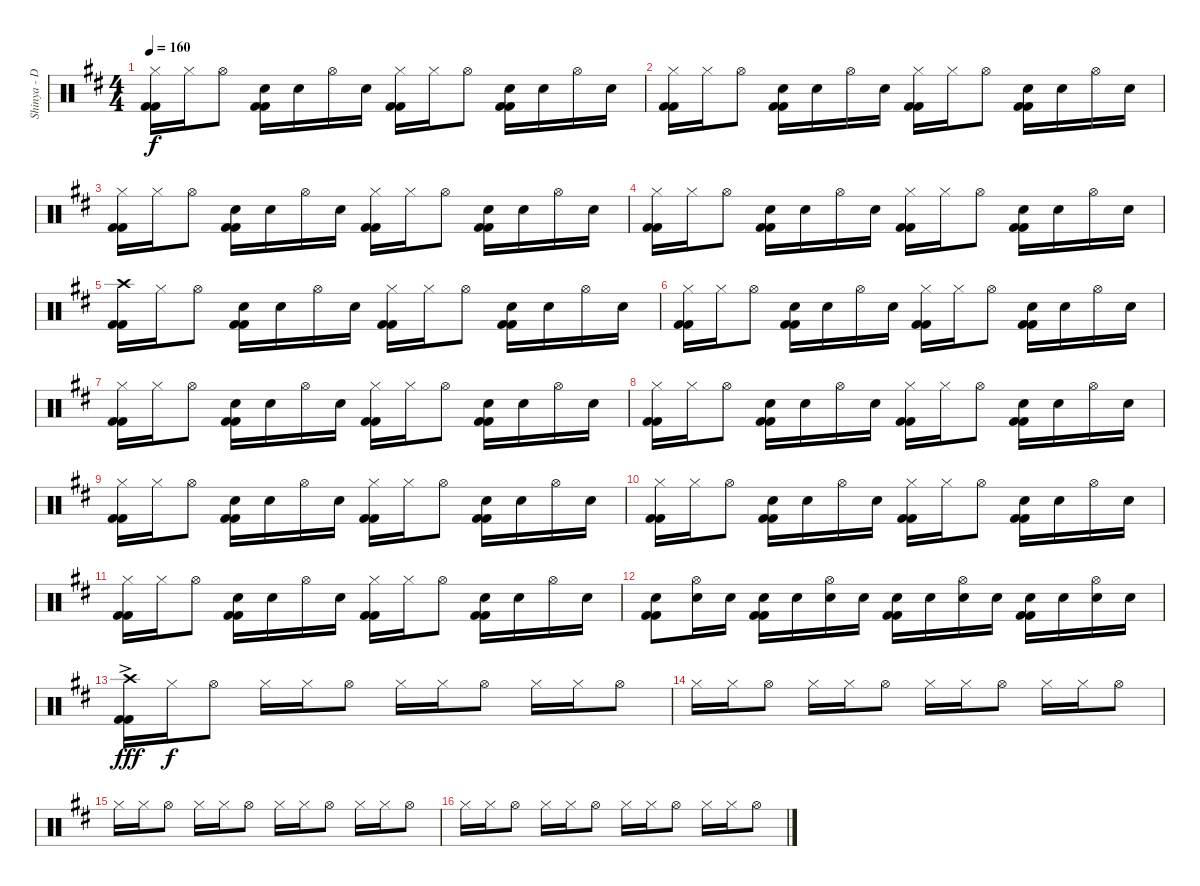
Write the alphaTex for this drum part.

\track ("Shinya - Drums" "Shinya - D") {instrument percussion}
\staff {score}
\articulation defaults
\ts (4 4)
\tempo 160
\clef neutral
\ks d
("Hi-Hat (closed)" "Kick (hit) 2" "Kick (hit) 2").16{dy f} "Hi-Hat (closed)".16 "Hi-Hat (open)".8 ("Snare (hit) 2" "Kick (hit) 2" "Kick (hit) 2").16 "Snare (hit) 2".16 "Hi-Hat (open)".16 "Snare (hit) 2".16 ("Hi-Hat (closed)" "Kick (hit) 2" "Kick (hit) 2").16 "Hi-Hat (closed)".16 "Hi-Hat (open)".8 ("Snare (hit) 2" "Kick (hit) 2" "Kick (hit) 2").16 "Snare (hit) 2".16 "Hi-Hat (open)".16 "Snare (hit) 2".16 |
("Hi-Hat (closed)" "Kick (hit) 2" "Kick (hit) 2").16 "Hi-Hat (closed)".16 "Hi-Hat (open)".8 ("Snare (hit) 2" "Kick (hit) 2" "Kick (hit) 2").16 "Snare (hit) 2".16 "Hi-Hat (open)".16 "Snare (hit) 2".16 ("Hi-Hat (closed)" "Kick (hit) 2" "Kick (hit) 2").16 "Hi-Hat (closed)".16 "Hi-Hat (open)".8 ("Snare (hit) 2" "Kick (hit) 2" "Kick (hit) 2").16 "Snare (hit) 2".16 "Hi-Hat (open)".16 "Snare (hit) 2".16 |
("Hi-Hat (closed)" "Kick (hit) 2" "Kick (hit) 2").16 "Hi-Hat (closed)".16 "Hi-Hat (open)".8 ("Snare (hit) 2" "Kick (hit) 2" "Kick (hit) 2").16 "Snare (hit) 2".16 "Hi-Hat (open)".16 "Snare (hit) 2".16 ("Hi-Hat (closed)" "Kick (hit) 2" "Kick (hit) 2").16 "Hi-Hat (closed)".16 "Hi-Hat (open)".8 ("Snare (hit) 2" "Kick (hit) 2" "Kick (hit) 2").16 "Snare (hit) 2".16 "Hi-Hat (open)".16 "Snare (hit) 2".16 |
("Hi-Hat (closed)" "Kick (hit) 2" "Kick (hit) 2").16 "Hi-Hat (closed)".16 "Hi-Hat (open)".8 ("Snare (hit) 2" "Kick (hit) 2" "Kick (hit) 2").16 "Snare (hit) 2".16 "Hi-Hat (open)".16 "Snare (hit) 2".16 ("Hi-Hat (closed)" "Kick (hit) 2" "Kick (hit) 2").16 "Hi-Hat (closed)".16 "Hi-Hat (open)".8 ("Snare (hit) 2" "Kick (hit) 2" "Kick (hit) 2").16 "Snare (hit) 2".16 "Hi-Hat (open)".16 "Snare (hit) 2".16 |
("Crash high (hit)" "Kick (hit) 2" "Kick (hit) 2").16 "Hi-Hat (closed)".16 "Hi-Hat (open)".8 ("Snare (hit) 2" "Kick (hit) 2" "Kick (hit) 2").16 "Snare (hit) 2".16 "Hi-Hat (open)".16 "Snare (hit) 2".16 ("Hi-Hat (closed)" "Kick (hit) 2" "Kick (hit) 2").16 "Hi-Hat (closed)".16 "Hi-Hat (open)".8 ("Snare (hit) 2" "Kick (hit) 2" "Kick (hit) 2").16 "Snare (hit) 2".16 "Hi-Hat (open)".16 "Snare (hit) 2".16 |
("Hi-Hat (closed)" "Kick (hit) 2" "Kick (hit) 2").16 "Hi-Hat (closed)".16 "Hi-Hat (open)".8 ("Snare (hit) 2" "Kick (hit) 2" "Kick (hit) 2").16 "Snare (hit) 2".16 "Hi-Hat (open)".16 "Snare (hit) 2".16 ("Hi-Hat (closed)" "Kick (hit) 2" "Kick (hit) 2").16 "Hi-Hat (closed)".16 "Hi-Hat (open)".8 ("Snare (hit) 2" "Kick (hit) 2" "Kick (hit) 2").16 "Snare (hit) 2".16 "Hi-Hat (open)".16 "Snare (hit) 2".16 |
("Hi-Hat (closed)" "Kick (hit) 2" "Kick (hit) 2").16 "Hi-Hat (closed)".16 "Hi-Hat (open)".8 ("Snare (hit) 2" "Kick (hit) 2" "Kick (hit) 2").16 "Snare (hit) 2".16 "Hi-Hat (open)".16 "Snare (hit) 2".16 ("Hi-Hat (closed)" "Kick (hit) 2" "Kick (hit) 2").16 "Hi-Hat (closed)".16 "Hi-Hat (open)".8 ("Snare (hit) 2" "Kick (hit) 2" "Kick (hit) 2").16 "Snare (hit) 2".16 "Hi-Hat (open)".16 "Snare (hit) 2".16 |
("Hi-Hat (closed)" "Kick (hit) 2" "Kick (hit) 2").16 "Hi-Hat (closed)".16 "Hi-Hat (open)".8 ("Snare (hit) 2" "Kick (hit) 2" "Kick (hit) 2").16 "Snare (hit) 2".16 "Hi-Hat (open)".16 "Snare (hit) 2".16 ("Hi-Hat (closed)" "Kick (hit) 2" "Kick (hit) 2").16 "Hi-Hat (closed)".16 "Hi-Hat (open)".8 ("Snare (hit) 2" "Kick (hit) 2" "Kick (hit) 2").16 "Snare (hit) 2".16 "Hi-Hat (open)".16 "Snare (hit) 2".16 |
("Hi-Hat (closed)" "Kick (hit) 2" "Kick (hit) 2").16 "Hi-Hat (closed)".16 "Hi-Hat (open)".8 ("Snare (hit) 2" "Kick (hit) 2" "Kick (hit) 2").16 "Snare (hit) 2".16 "Hi-Hat (open)".16 "Snare (hit) 2".16 ("Hi-Hat (closed)" "Kick (hit) 2" "Kick (hit) 2").16 "Hi-Hat (closed)".16 "Hi-Hat (open)".8 ("Snare (hit) 2" "Kick (hit) 2" "Kick (hit) 2").16 "Snare (hit) 2".16 "Hi-Hat (open)".16 "Snare (hit) 2".16 |
("Hi-Hat (closed)" "Kick (hit) 2" "Kick (hit) 2").16 "Hi-Hat (closed)".16 "Hi-Hat (open)".8 ("Snare (hit) 2" "Kick (hit) 2" "Kick (hit) 2").16 "Snare (hit) 2".16 "Hi-Hat (open)".16 "Snare (hit) 2".16 ("Hi-Hat (closed)" "Kick (hit) 2" "Kick (hit) 2").16 "Hi-Hat (closed)".16 "Hi-Hat (open)".8 ("Snare (hit) 2" "Kick (hit) 2" "Kick (hit) 2").16 "Snare (hit) 2".16 "Hi-Hat (open)".16 "Snare (hit) 2".16 |
("Hi-Hat (closed)" "Kick (hit) 2" "Kick (hit) 2").16 "Hi-Hat (closed)".16 "Hi-Hat (open)".8 ("Snare (hit) 2" "Kick (hit) 2" "Kick (hit) 2").16 "Snare (hit) 2".16 "Hi-Hat (open)".16 "Snare (hit) 2".16 ("Hi-Hat (closed)" "Kick (hit) 2" "Kick (hit) 2").16 "Hi-Hat (closed)".16 "Hi-Hat (open)".8 ("Snare (hit) 2" "Kick (hit) 2" "Kick (hit) 2").16 "Snare (hit) 2".16 "Hi-Hat (open)".16 "Snare (hit) 2".16 |
("Snare (hit) 2" "Kick (hit) 2" "Kick (hit) 2").8 ("Hi-Hat (open)" "Snare (hit) 2").16 "Snare (hit) 2".16 ("Snare (hit) 2" "Kick (hit) 2" "Kick (hit) 2").16 "Snare (hit) 2".16 ("Hi-Hat (open)" "Snare (hit) 2").16 "Snare (hit) 2".16 ("Snare (hit) 2" "Kick (hit) 2" "Kick (hit) 2").16 "Snare (hit) 2".16 ("Hi-Hat (open)" "Snare (hit) 2").16 "Snare (hit) 2".16 ("Snare (hit) 2" "Kick (hit) 2" "Kick (hit) 2").16 "Snare (hit) 2".16 ("Hi-Hat (open)" "Snare (hit) 2").16 "Snare (hit) 2".16 |
("Crash high (hit)"{ac} "Kick (hit) 2" "Kick (hit) 2").16{dy fff} "Hi-Hat (closed)".16{dy f} "Hi-Hat (open)".8 "Hi-Hat (closed)".16 "Hi-Hat (closed)".16 "Hi-Hat (open)".8 "Hi-Hat (closed)".16 "Hi-Hat (closed)".16 "Hi-Hat (open)".8 "Hi-Hat (closed)".16 "Hi-Hat (closed)".16 "Hi-Hat (open)".8 |
"Hi-Hat (closed)".16 "Hi-Hat (closed)".16 "Hi-Hat (open)".8 "Hi-Hat (closed)".16 "Hi-Hat (closed)".16 "Hi-Hat (open)".8 "Hi-Hat (closed)".16 "Hi-Hat (closed)".16 "Hi-Hat (open)".8 "Hi-Hat (closed)".16 "Hi-Hat (closed)".16 "Hi-Hat (open)".8 |
"Hi-Hat (closed)".16 "Hi-Hat (closed)".16 "Hi-Hat (open)".8 "Hi-Hat (closed)".16 "Hi-Hat (closed)".16 "Hi-Hat (open)".8 "Hi-Hat (closed)".16 "Hi-Hat (closed)".16 "Hi-Hat (open)".8 "Hi-Hat (closed)".16 "Hi-Hat (closed)".16 "Hi-Hat (open)".8 |
"Hi-Hat (closed)".16 "Hi-Hat (closed)".16 "Hi-Hat (open)".8 "Hi-Hat (closed)".16 "Hi-Hat (closed)".16 "Hi-Hat (open)".8 "Hi-Hat (closed)".16 "Hi-Hat (closed)".16 "Hi-Hat (open)".8 "Hi-Hat (closed)".16 "Hi-Hat (closed)".16 "Hi-Hat (open)".8
